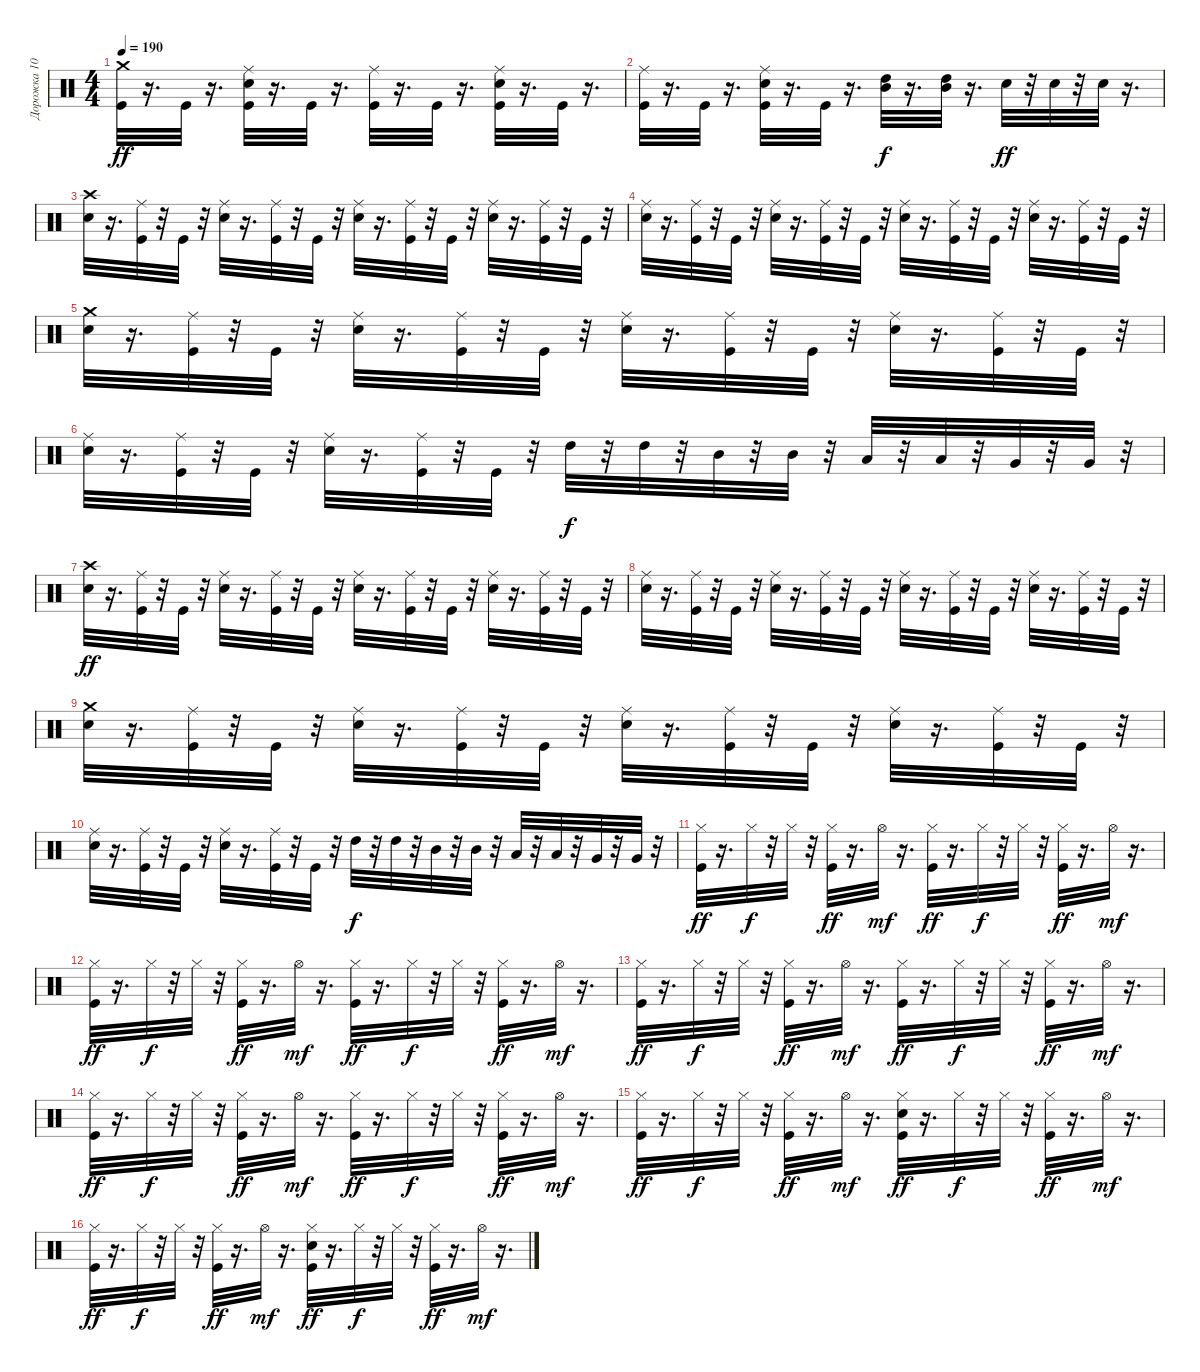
\track ("Дорожка 10" "Дорожка 10") {instrument percussion}
\staff {score}
\articulation defaults
\ts (4 4)
\tempo 190
\clef neutral
\ks c
("Crash medium (hit)" "Kick (hit)").32{dy ff} r.16{d} "Kick (hit)".32 r.16{d} ("Kick (hit)" "Snare (hit) 2" "Ride (middle)").32 r.16{d} "Kick (hit)".32 r.16{d} ("Kick (hit)" "Ride (middle)").32 r.16{d} "Kick (hit)".32 r.16{d} ("Kick (hit)" "Snare (hit) 2" "Ride (middle)").32 r.16{d} "Kick (hit)".32 r.16{d} |
("Ride (middle)" "Kick (hit)").32 r.16{d} "Kick (hit)".32 r.16{d} ("Ride (middle)" "Kick (hit)" "Snare (hit) 2").32 r.16{d} "Kick (hit)".32 r.16{d} ("Mid Tom (hit)" "High Tom (hit)").32{dy f} r.16{d} ("Mid Tom (hit)" "High Tom (hit)").32 r.16{d} "Snare (hit) 2".32{dy ff} r.32 "Snare (hit) 2".32 r.32 "Snare (hit) 2".32 r.16{d} |
("Snare (hit) 2" "Crash high (hit)").32 r.16{d} ("Ride (middle)" "Kick (hit)").32 r.32 "Kick (hit)".32 r.32 ("Ride (middle)" "Snare (hit) 2").32 r.16{d} ("Ride (middle)" "Kick (hit)").32 r.32 "Kick (hit)".32 r.32 ("Ride (middle)" "Snare (hit) 2").32 r.16{d} ("Kick (hit)" "Ride (middle)").32 r.32 "Kick (hit)".32 r.32 ("Ride (middle)" "Snare (hit) 2").32 r.16{d} ("Ride (middle)" "Kick (hit)").32 r.32 "Kick (hit)".32 r.32 |
("Snare (hit) 2" "Ride (middle)").32 r.16{d} ("Ride (middle)" "Kick (hit)").32 r.32 "Kick (hit)".32 r.32 ("Ride (middle)" "Snare (hit) 2").32 r.16{d} ("Ride (middle)" "Kick (hit)").32 r.32 "Kick (hit)".32 r.32 ("Ride (middle)" "Snare (hit) 2").32 r.16{d} ("Ride (middle)" "Kick (hit)").32 r.32 "Kick (hit)".32 r.32 ("Ride (middle)" "Snare (hit) 2").32 r.16{d} ("Ride (middle)" "Kick (hit)").32 r.32 "Kick (hit)".32 r.32 |
("Crash medium (hit)" "Snare (hit) 2").32 r.16{d} ("Ride (middle)" "Kick (hit)").32 r.32 "Kick (hit)".32 r.32 ("Ride (middle)" "Snare (hit) 2").32 r.16{d} ("Ride (middle)" "Kick (hit)").32 r.32 "Kick (hit)".32 r.32 ("Ride (middle)" "Snare (hit) 2").32 r.16{d} ("Ride (middle)" "Kick (hit)").32 r.32 "Kick (hit)".32 r.32 ("Ride (middle)" "Snare (hit) 2").32 r.16{d} ("Ride (middle)" "Kick (hit)").32 r.32 "Kick (hit)".32 r.32 |
("Ride (middle)" "Snare (hit) 2").32 r.16{d} ("Ride (middle)" "Kick (hit)").32 r.32 "Kick (hit)".32 r.32 ("Ride (middle)" "Snare (hit) 2").32 r.16{d} ("Ride (middle)" "Kick (hit)").32 r.32 "Kick (hit)".32 r.32 "High Tom (hit)".32{dy f} r.32 "High Tom (hit)".32 r.32 "Mid Tom (hit)".32 r.32 "Mid Tom (hit)".32 r.32 "Low Tom (hit)".32 r.32 "Low Tom (hit)".32 r.32 "Very Low Tom (hit)".32 r.32 "Very Low Tom (hit)".32 r.32 |
("Snare (hit) 2" "Crash high (hit)").32{dy ff} r.16{d} ("Ride (middle)" "Kick (hit)").32 r.32 "Kick (hit)".32 r.32 ("Ride (middle)" "Snare (hit) 2").32 r.16{d} ("Ride (middle)" "Kick (hit)").32 r.32 "Kick (hit)".32 r.32 ("Ride (middle)" "Snare (hit) 2").32 r.16{d} ("Kick (hit)" "Ride (middle)").32 r.32 "Kick (hit)".32 r.32 ("Ride (middle)" "Snare (hit) 2").32 r.16{d} ("Ride (middle)" "Kick (hit)").32 r.32 "Kick (hit)".32 r.32 |
("Snare (hit) 2" "Ride (middle)").32 r.16{d} ("Ride (middle)" "Kick (hit)").32 r.32 "Kick (hit)".32 r.32 ("Ride (middle)" "Snare (hit) 2").32 r.16{d} ("Ride (middle)" "Kick (hit)").32 r.32 "Kick (hit)".32 r.32 ("Ride (middle)" "Snare (hit) 2").32 r.16{d} ("Ride (middle)" "Kick (hit)").32 r.32 "Kick (hit)".32 r.32 ("Ride (middle)" "Snare (hit) 2").32 r.16{d} ("Ride (middle)" "Kick (hit)").32 r.32 "Kick (hit)".32 r.32 |
("Crash medium (hit)" "Snare (hit) 2").32 r.16{d} ("Ride (middle)" "Kick (hit)").32 r.32 "Kick (hit)".32 r.32 ("Ride (middle)" "Snare (hit) 2").32 r.16{d} ("Ride (middle)" "Kick (hit)").32 r.32 "Kick (hit)".32 r.32 ("Ride (middle)" "Snare (hit) 2").32 r.16{d} ("Ride (middle)" "Kick (hit)").32 r.32 "Kick (hit)".32 r.32 ("Ride (middle)" "Snare (hit) 2").32 r.16{d} ("Ride (middle)" "Kick (hit)").32 r.32 "Kick (hit)".32 r.32 |
("Ride (middle)" "Snare (hit) 2").32 r.16{d} ("Ride (middle)" "Kick (hit)").32 r.32 "Kick (hit)".32 r.32 ("Ride (middle)" "Snare (hit) 2").32 r.16{d} ("Ride (middle)" "Kick (hit)").32 r.32 "Kick (hit)".32 r.32 "High Tom (hit)".32{dy f} r.32 "High Tom (hit)".32 r.32 "Mid Tom (hit)".32 r.32 "Mid Tom (hit)".32 r.32 "Low Tom (hit)".32 r.32 "Low Tom (hit)".32 r.32 "Very Low Tom (hit)".32 r.32 "Very Low Tom (hit)".32 r.32 |
("Kick (hit)" "Hi-Hat (closed)").32{dy ff} r.16{d} "Hi-Hat (closed)".32{dy f} r.32 "Hi-Hat (closed)".32 r.32 ("Hi-Hat (closed)" "Kick (hit)").32{dy ff} r.16{d} "Hi-Hat (open)".32{dy mf} r.16{d} ("Kick (hit)" "Hi-Hat (closed)").32{dy ff} r.16{d} "Hi-Hat (closed)".32{dy f} r.32 "Hi-Hat (closed)".32 r.32 ("Kick (hit)" "Hi-Hat (closed)").32{dy ff} r.16{d} "Hi-Hat (open)".32{dy mf} r.16{d} |
("Hi-Hat (closed)" "Kick (hit)").32{dy ff} r.16{d} "Hi-Hat (closed)".32{dy f} r.32 "Hi-Hat (closed)".32 r.32 ("Kick (hit)" "Hi-Hat (closed)").32{dy ff} r.16{d} "Hi-Hat (open)".32{dy mf} r.16{d} ("Hi-Hat (closed)" "Kick (hit)").32{dy ff} r.16{d} "Hi-Hat (closed)".32{dy f} r.32 "Hi-Hat (closed)".32 r.32 ("Kick (hit)" "Hi-Hat (closed)").32{dy ff} r.16{d} "Hi-Hat (open)".32{dy mf} r.16{d} |
("Hi-Hat (closed)" "Kick (hit)").32{dy ff} r.16{d} "Hi-Hat (closed)".32{dy f} r.32 "Hi-Hat (closed)".32 r.32 ("Hi-Hat (closed)" "Kick (hit)").32{dy ff} r.16{d} "Hi-Hat (open)".32{dy mf} r.16{d} ("Hi-Hat (closed)" "Kick (hit)").32{dy ff} r.16{d} "Hi-Hat (closed)".32{dy f} r.32 "Hi-Hat (closed)".32 r.32 ("Hi-Hat (closed)" "Kick (hit)").32{dy ff} r.16{d} "Hi-Hat (open)".32{dy mf} r.16{d} |
("Hi-Hat (closed)" "Kick (hit)").32{dy ff} r.16{d} "Hi-Hat (closed)".32{dy f} r.32 "Hi-Hat (closed)".32 r.32 ("Kick (hit)" "Hi-Hat (closed)").32{dy ff} r.16{d} "Hi-Hat (open)".32{dy mf} r.16{d} ("Hi-Hat (closed)" "Kick (hit)").32{dy ff} r.16{d} "Hi-Hat (closed)".32{dy f} r.32 "Hi-Hat (closed)".32 r.32 ("Kick (hit)" "Hi-Hat (closed)").32{dy ff} r.16{d} "Hi-Hat (open)".32{dy mf} r.16{d} |
("Kick (hit)" "Hi-Hat (closed)").32{dy ff} r.16{d} "Hi-Hat (closed)".32{dy f} r.32 "Hi-Hat (closed)".32 r.32 ("Hi-Hat (closed)" "Kick (hit)").32{dy ff} r.16{d} "Hi-Hat (open)".32{dy mf} r.16{d} ("Kick (hit)" "Hi-Hat (closed)" "Snare (hit) 2").32{dy ff} r.16{d} "Hi-Hat (closed)".32{dy f} r.32 "Hi-Hat (closed)".32 r.32 ("Kick (hit)" "Hi-Hat (closed)").32{dy ff} r.16{d} "Hi-Hat (open)".32{dy mf} r.16{d} |
("Hi-Hat (closed)" "Kick (hit)").32{dy ff} r.16{d} "Hi-Hat (closed)".32{dy f} r.32 "Hi-Hat (closed)".32 r.32 ("Kick (hit)" "Hi-Hat (closed)").32{dy ff} r.16{d} "Hi-Hat (open)".32{dy mf} r.16{d} ("Snare (hit) 2" "Hi-Hat (closed)" "Kick (hit)").32{dy ff} r.16{d} "Hi-Hat (closed)".32{dy f} r.32 "Hi-Hat (closed)".32 r.32 ("Kick (hit)" "Hi-Hat (closed)").32{dy ff} r.16{d} "Hi-Hat (open)".32{dy mf} r.16{d}
